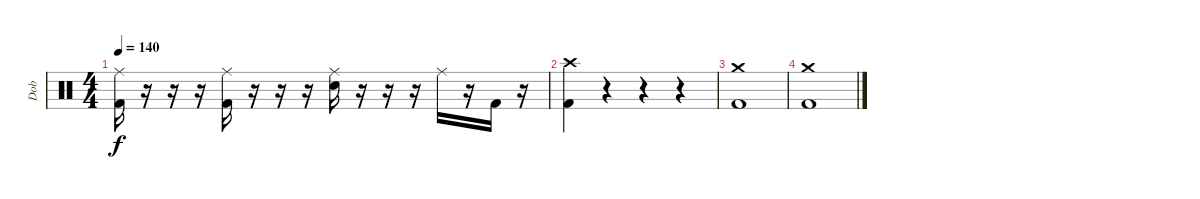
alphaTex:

\track ("Dob" "Dob") {instrument percussion}
\staff {score}
\articulation defaults
\ts (4 4)
\tempo 140
\clef neutral
\ks c
("Ride (middle)" "Kick (hit) 2").16{dy f} r.16 r.16 r.16 ("Ride (middle)" "Kick (hit) 2").16 r.16 r.16 r.16 ("Ride (middle)" "Electric Snare (hit)").16 r.16 r.16 r.16 "Ride (middle)".16 r.16 "Kick (hit) 2".16 r.16 |
("Crash high (hit)" "Kick (hit) 2").4 r.4 r.4 r.4 |
("Crash medium (hit)" "Kick (hit) 2").1 |
("Crash medium (hit)" "Kick (hit) 2").1
